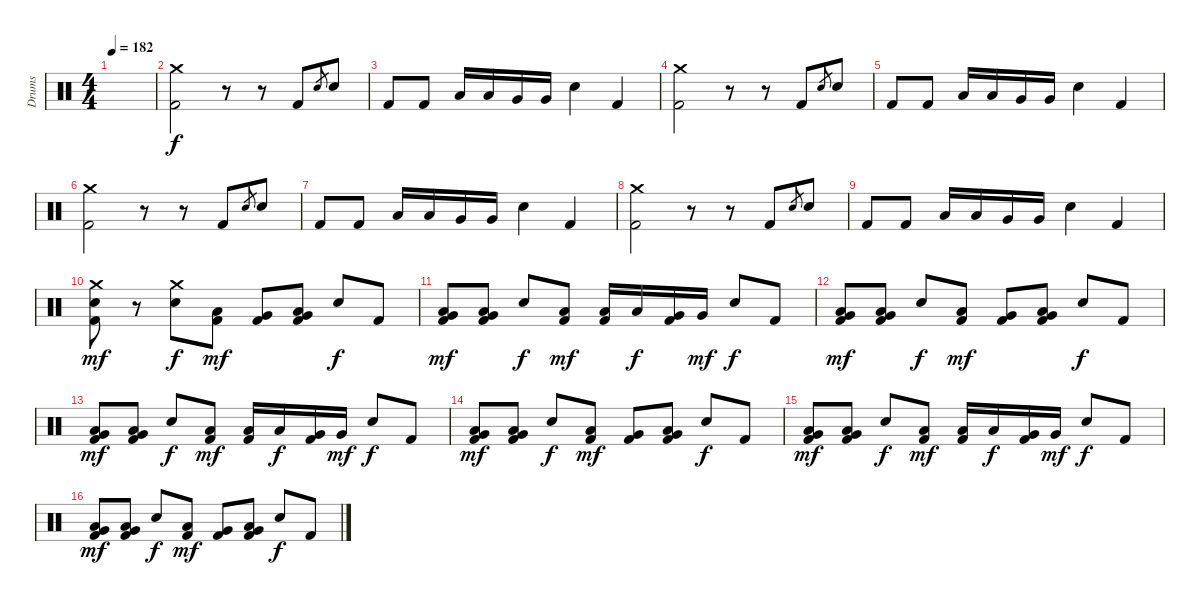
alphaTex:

\track ("Drums" "Drums") {instrument percussion}
\staff {score}
\articulation defaults
\ts (4 4)
\tempo 182
\clef neutral
\ks c
|
("Crash medium (hit)" "Kick (hit) 2").2 r.8 r.8 "Kick (hit) 2".8 "Snare (hit) 2".8{gr} "Snare (hit) 2".8 |
"Kick (hit) 2".8 "Kick (hit) 2".8 "Low Tom (hit)".16 "Low Tom (hit)".16 "Very Low Tom (hit)".16 "Very Low Tom (hit)".16 "Snare (hit) 2".4 "Kick (hit) 2".4 |
("Crash medium (hit)" "Kick (hit) 2").2 r.8 r.8 "Kick (hit) 2".8 "Snare (hit) 2".8{gr} "Snare (hit) 2".8 |
"Kick (hit) 2".8 "Kick (hit) 2".8 "Low Tom (hit)".16 "Low Tom (hit)".16 "Very Low Tom (hit)".16 "Very Low Tom (hit)".16 "Snare (hit) 2".4 "Kick (hit) 2".4 |
("Crash medium (hit)" "Kick (hit) 2").2 r.8 r.8 "Kick (hit) 2".8 "Snare (hit) 2".8{gr} "Snare (hit) 2".8 |
"Kick (hit) 2".8 "Kick (hit) 2".8 "Low Tom (hit)".16 "Low Tom (hit)".16 "Very Low Tom (hit)".16 "Very Low Tom (hit)".16 "Snare (hit) 2".4 "Kick (hit) 2".4 |
("Crash medium (hit)" "Kick (hit) 2").2 r.8 r.8 "Kick (hit) 2".8 "Snare (hit) 2".8{gr} "Snare (hit) 2".8 |
"Kick (hit) 2".8 "Kick (hit) 2".8 "Low Tom (hit)".16 "Low Tom (hit)".16 "Very Low Tom (hit)".16 "Very Low Tom (hit)".16 "Snare (hit) 2".4 "Kick (hit) 2".4 |
("Crash medium (hit)" "Snare (hit) 2" "Kick (hit) 2").8{dy mf} r.8 ("Crash medium (hit)" "Snare (hit) 2").8{dy f} ("Low Tom (hit)" "Kick (hit) 2").8{dy mf} ("Very Low Tom (hit)" "Kick (hit) 2").8 ("Low Tom (hit)" "Very Low Tom (hit)" "Kick (hit) 2").8 "Snare (hit) 2".8{dy f} "Kick (hit) 2".8 |
("Low Tom (hit)" "Very Low Tom (hit)" "Kick (hit) 2").8{dy mf} ("Low Tom (hit)" "Very Low Tom (hit)" "Kick (hit) 2").8 "Snare (hit) 2".8{dy f} ("Low Tom (hit)" "Kick (hit) 2").8{dy mf} ("Low Tom (hit)" "Kick (hit) 2").16 "Low Tom (hit)".16{dy f} ("Very Low Tom (hit)" "Kick (hit) 2").16 "Very Low Tom (hit)".16{dy mf} "Snare (hit) 2".8{dy f} "Kick (hit) 2".8 |
("Low Tom (hit)" "Very Low Tom (hit)" "Kick (hit) 2").8{dy mf} ("Low Tom (hit)" "Very Low Tom (hit)" "Kick (hit) 2").8 "Snare (hit) 2".8{dy f} ("Low Tom (hit)" "Kick (hit) 2").8{dy mf} ("Very Low Tom (hit)" "Kick (hit) 2").8 ("Low Tom (hit)" "Very Low Tom (hit)" "Kick (hit) 2").8 "Snare (hit) 2".8{dy f} "Kick (hit) 2".8 |
("Low Tom (hit)" "Very Low Tom (hit)" "Kick (hit) 2").8{dy mf} ("Low Tom (hit)" "Very Low Tom (hit)" "Kick (hit) 2").8 "Snare (hit) 2".8{dy f} ("Low Tom (hit)" "Kick (hit) 2").8{dy mf} ("Low Tom (hit)" "Kick (hit) 2").16 "Low Tom (hit)".16{dy f} ("Very Low Tom (hit)" "Kick (hit) 2").16 "Very Low Tom (hit)".16{dy mf} "Snare (hit) 2".8{dy f} "Kick (hit) 2".8 |
("Low Tom (hit)" "Very Low Tom (hit)" "Kick (hit) 2").8{dy mf} ("Low Tom (hit)" "Very Low Tom (hit)" "Kick (hit) 2").8 "Snare (hit) 2".8{dy f} ("Low Tom (hit)" "Kick (hit) 2").8{dy mf} ("Very Low Tom (hit)" "Kick (hit) 2").8 ("Low Tom (hit)" "Very Low Tom (hit)" "Kick (hit) 2").8 "Snare (hit) 2".8{dy f} "Kick (hit) 2".8 |
("Low Tom (hit)" "Very Low Tom (hit)" "Kick (hit) 2").8{dy mf} ("Low Tom (hit)" "Very Low Tom (hit)" "Kick (hit) 2").8 "Snare (hit) 2".8{dy f} ("Low Tom (hit)" "Kick (hit) 2").8{dy mf} ("Low Tom (hit)" "Kick (hit) 2").16 "Low Tom (hit)".16{dy f} ("Very Low Tom (hit)" "Kick (hit) 2").16 "Very Low Tom (hit)".16{dy mf} "Snare (hit) 2".8{dy f} "Kick (hit) 2".8 |
("Low Tom (hit)" "Very Low Tom (hit)" "Kick (hit) 2").8{dy mf} ("Low Tom (hit)" "Very Low Tom (hit)" "Kick (hit) 2").8 "Snare (hit) 2".8{dy f} ("Low Tom (hit)" "Kick (hit) 2").8{dy mf} ("Very Low Tom (hit)" "Kick (hit) 2").8 ("Low Tom (hit)" "Very Low Tom (hit)" "Kick (hit) 2").8 "Snare (hit) 2".8{dy f} "Kick (hit) 2".8
